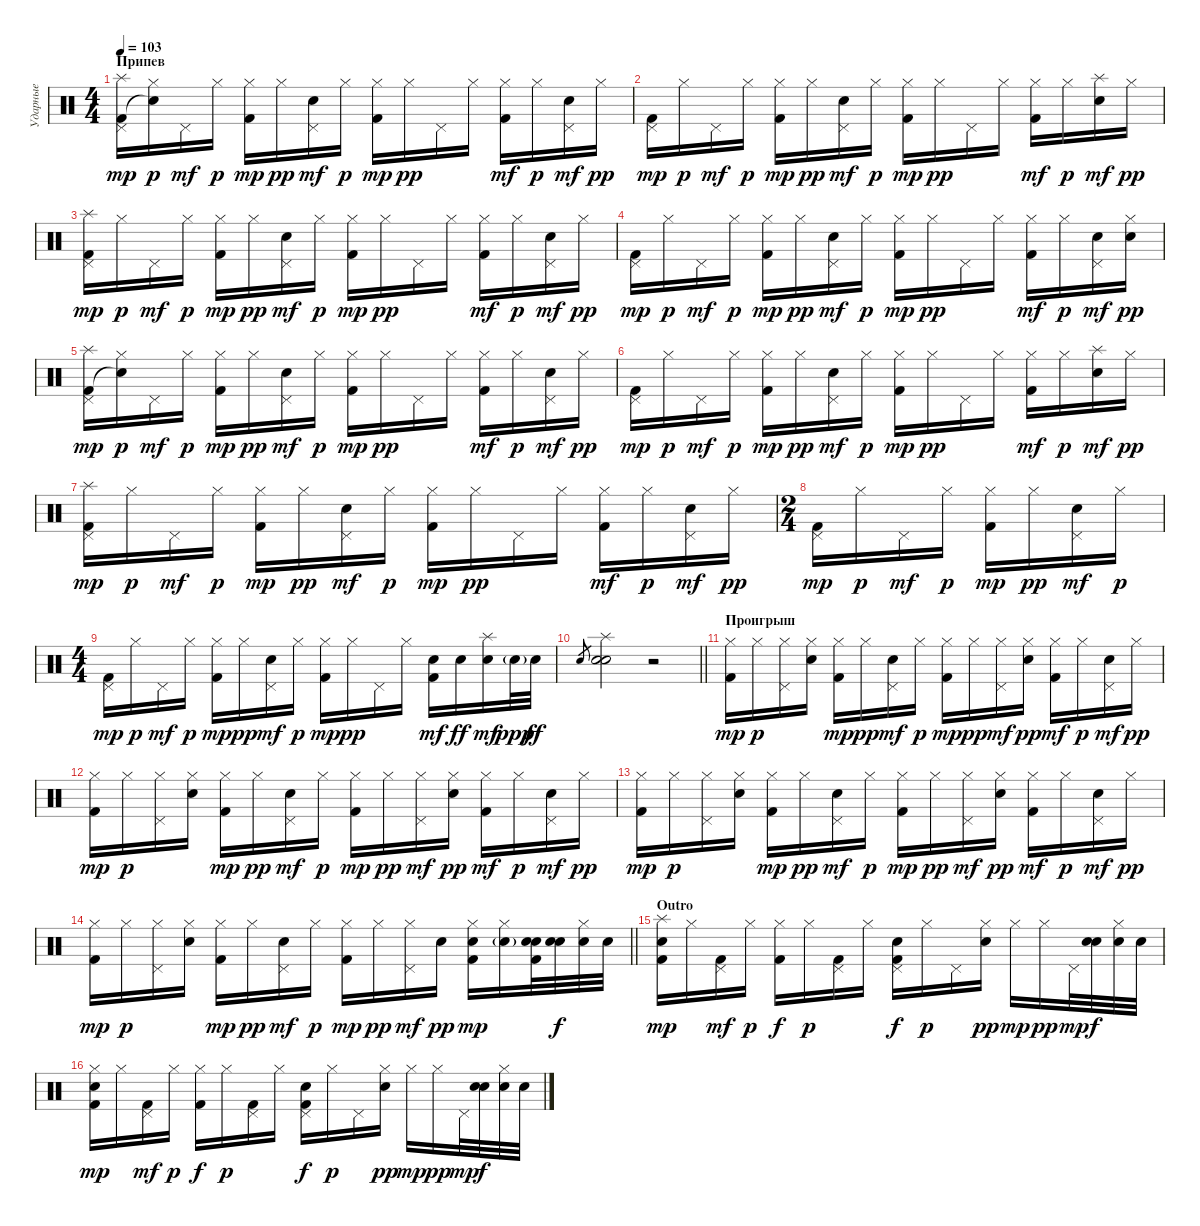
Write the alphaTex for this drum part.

\track ("Ударные" "Ударные") {instrument percussion}
\staff {score}
\articulation defaults
\ts (4 4)
\section ("" "Припев")
\tempo 103
\clef neutral
\ks c
("Pedal Hi-Hat (hit)" "Kick (hit) 2" "Splash (hit)").16{dy mp} ("Hi-Hat (closed)" "Snare (hit)"{t}).16{dy p} "Pedal Hi-Hat (hit)".16{dy mf} "Hi-Hat (closed)".16{dy p} ("Kick (hit) 2" "Hi-Hat (closed)").16{dy mp} "Hi-Hat (closed)".16{dy pp} ("Electric Snare (hit)" "Pedal Hi-Hat (hit)").16{dy mf} "Hi-Hat (closed)".16{dy p} ("Hi-Hat (closed)" "Kick (hit) 2").16{dy mp} "Hi-Hat (closed)".16{dy pp} "Pedal Hi-Hat (hit)".16 "Hi-Hat (closed)".16 ("Hi-Hat (closed)" "Kick (hit) 2").16{dy mf} "Hi-Hat (closed)".16{dy p} ("Electric Snare (hit)" "Pedal Hi-Hat (hit)").16{dy mf} "Hi-Hat (closed)".16{dy pp} |
("Pedal Hi-Hat (hit)" "Kick (hit) 2").16{dy mp} "Hi-Hat (closed)".16{dy p} "Pedal Hi-Hat (hit)".16{dy mf} "Hi-Hat (closed)".16{dy p} ("Kick (hit) 2" "Hi-Hat (closed)").16{dy mp} "Hi-Hat (closed)".16{dy pp} ("Electric Snare (hit)" "Pedal Hi-Hat (hit)").16{dy mf} "Hi-Hat (closed)".16{dy p} ("Hi-Hat (closed)" "Kick (hit) 2").16{dy mp} "Hi-Hat (closed)".16{dy pp} "Pedal Hi-Hat (hit)".16 "Hi-Hat (closed)".16 ("Hi-Hat (closed)" "Kick (hit) 2").16{dy mf} "Hi-Hat (closed)".16{dy p} ("Electric Snare (hit)" "Splash (hit)").16{dy mf} "Hi-Hat (closed)".16{dy pp} |
("Pedal Hi-Hat (hit)" "Kick (hit) 2" "Splash (hit)").16{dy mp} "Hi-Hat (closed)".16{dy p} "Pedal Hi-Hat (hit)".16{dy mf} "Hi-Hat (closed)".16{dy p} ("Kick (hit) 2" "Hi-Hat (closed)").16{dy mp} "Hi-Hat (closed)".16{dy pp} ("Electric Snare (hit)" "Pedal Hi-Hat (hit)").16{dy mf} "Hi-Hat (closed)".16{dy p} ("Hi-Hat (closed)" "Kick (hit) 2").16{dy mp} "Hi-Hat (closed)".16{dy pp} "Pedal Hi-Hat (hit)".16 "Hi-Hat (closed)".16 ("Hi-Hat (closed)" "Kick (hit) 2").16{dy mf} "Hi-Hat (closed)".16{dy p} ("Electric Snare (hit)" "Pedal Hi-Hat (hit)").16{dy mf} "Hi-Hat (closed)".16{dy pp} |
("Pedal Hi-Hat (hit)" "Kick (hit) 2").16{dy mp} "Hi-Hat (closed)".16{dy p} "Pedal Hi-Hat (hit)".16{dy mf} "Hi-Hat (closed)".16{dy p} ("Kick (hit) 2" "Hi-Hat (closed)").16{dy mp} "Hi-Hat (closed)".16{dy pp} ("Electric Snare (hit)" "Pedal Hi-Hat (hit)").16{dy mf} "Hi-Hat (closed)".16{dy p} ("Hi-Hat (closed)" "Kick (hit) 2").16{dy mp} "Hi-Hat (closed)".16{dy pp} "Pedal Hi-Hat (hit)".16 "Hi-Hat (closed)".16 ("Hi-Hat (closed)" "Kick (hit) 2").16{dy mf} "Hi-Hat (closed)".16{dy p} ("Electric Snare (hit)" "Pedal Hi-Hat (hit)").16{dy mf} ("Hi-Hat (closed)" "Electric Snare (hit)").16{dy pp} |
("Pedal Hi-Hat (hit)" "Kick (hit) 2" "Splash (hit)").16{dy mp} ("Hi-Hat (closed)" "Snare (hit)"{t}).16{dy p} "Pedal Hi-Hat (hit)".16{dy mf} "Hi-Hat (closed)".16{dy p} ("Kick (hit) 2" "Hi-Hat (closed)").16{dy mp} "Hi-Hat (closed)".16{dy pp} ("Electric Snare (hit)" "Pedal Hi-Hat (hit)").16{dy mf} "Hi-Hat (closed)".16{dy p} ("Hi-Hat (closed)" "Kick (hit) 2").16{dy mp} "Hi-Hat (closed)".16{dy pp} "Pedal Hi-Hat (hit)".16 "Hi-Hat (closed)".16 ("Hi-Hat (closed)" "Kick (hit) 2").16{dy mf} "Hi-Hat (closed)".16{dy p} ("Electric Snare (hit)" "Pedal Hi-Hat (hit)").16{dy mf} "Hi-Hat (closed)".16{dy pp} |
("Pedal Hi-Hat (hit)" "Kick (hit) 2").16{dy mp} "Hi-Hat (closed)".16{dy p} "Pedal Hi-Hat (hit)".16{dy mf} "Hi-Hat (closed)".16{dy p} ("Kick (hit) 2" "Hi-Hat (closed)").16{dy mp} "Hi-Hat (closed)".16{dy pp} ("Electric Snare (hit)" "Pedal Hi-Hat (hit)").16{dy mf} "Hi-Hat (closed)".16{dy p} ("Hi-Hat (closed)" "Kick (hit) 2").16{dy mp} "Hi-Hat (closed)".16{dy pp} "Pedal Hi-Hat (hit)".16 "Hi-Hat (closed)".16 ("Hi-Hat (closed)" "Kick (hit) 2").16{dy mf} "Hi-Hat (closed)".16{dy p} ("Electric Snare (hit)" "Splash (hit)").16{dy mf} "Hi-Hat (closed)".16{dy pp} |
("Pedal Hi-Hat (hit)" "Kick (hit) 2" "Splash (hit)").16{dy mp} "Hi-Hat (closed)".16{dy p} "Pedal Hi-Hat (hit)".16{dy mf} "Hi-Hat (closed)".16{dy p} ("Kick (hit) 2" "Hi-Hat (closed)").16{dy mp} "Hi-Hat (closed)".16{dy pp} ("Electric Snare (hit)" "Pedal Hi-Hat (hit)").16{dy mf} "Hi-Hat (closed)".16{dy p} ("Hi-Hat (closed)" "Kick (hit) 2").16{dy mp} "Hi-Hat (closed)".16{dy pp} "Pedal Hi-Hat (hit)".16 "Hi-Hat (closed)".16 ("Hi-Hat (closed)" "Kick (hit) 2").16{dy mf} "Hi-Hat (closed)".16{dy p} ("Electric Snare (hit)" "Pedal Hi-Hat (hit)").16{dy mf} "Hi-Hat (closed)".16{dy pp} |
\ts (2 4)
("Pedal Hi-Hat (hit)" "Kick (hit) 2").16{dy mp} "Hi-Hat (closed)".16{dy p} "Pedal Hi-Hat (hit)".16{dy mf} "Hi-Hat (closed)".16{dy p} ("Kick (hit) 2" "Hi-Hat (closed)").16{dy mp} "Hi-Hat (closed)".16{dy pp} ("Electric Snare (hit)" "Pedal Hi-Hat (hit)").16{dy mf} "Hi-Hat (closed)".16{dy p} |
\ts (4 4)
("Pedal Hi-Hat (hit)" "Kick (hit) 2").16{dy mp} "Hi-Hat (closed)".16{dy p} "Pedal Hi-Hat (hit)".16{dy mf} "Hi-Hat (closed)".16{dy p} ("Kick (hit) 2" "Hi-Hat (closed)").16{dy mp} "Hi-Hat (closed)".16{dy pp} ("Electric Snare (hit)" "Pedal Hi-Hat (hit)").16{dy mf} "Hi-Hat (closed)".16{dy p} ("Hi-Hat (closed)" "Kick (hit) 2").16{dy mp} "Hi-Hat (closed)".16{dy pp} "Pedal Hi-Hat (hit)".16 "Hi-Hat (closed)".16 ("Electric Snare (hit)" "Kick (hit) 2").16{dy mf} "Electric Snare (hit)".16{dy ff} ("Electric Snare (hit)" "Splash (hit)").16{dy mf} "Electric Snare (hit)"{g}.32{dy ppp} "Electric Snare (hit)".32{dy ff} |
\barLineRight lightlight "Electric Snare (hit)".8{gr}
("Electric Snare (hit)" "Electric Snare (hit)" "Splash (hit)").2 r.2 |
\section ("" "Проигрыш")
("Hi-Hat (closed)" "Kick (hit) 2").16{dy mp} "Hi-Hat (closed)".16{dy p} ("Pedal Hi-Hat (hit)" "Hi-Hat (closed)").16 ("Electric Snare (hit)" "Hi-Hat (closed)").16 ("Kick (hit) 2" "Hi-Hat (closed)").16{dy mp} "Hi-Hat (closed)".16{dy pp} ("Electric Snare (hit)" "Pedal Hi-Hat (hit)").16{dy mf} "Hi-Hat (closed)".16{dy p} ("Hi-Hat (closed)" "Kick (hit) 2").16{dy mp} "Hi-Hat (closed)".16{dy pp} ("Hi-Hat (closed)" "Pedal Hi-Hat (hit)").16{dy mf} ("Electric Snare (hit)" "Hi-Hat (closed)").16{dy pp} ("Hi-Hat (closed)" "Kick (hit) 2").16{dy mf} "Hi-Hat (closed)".16{dy p} ("Electric Snare (hit)" "Pedal Hi-Hat (hit)").16{dy mf} "Hi-Hat (closed)".16{dy pp} |
("Hi-Hat (closed)" "Kick (hit) 2").16{dy mp} "Hi-Hat (closed)".16{dy p} ("Pedal Hi-Hat (hit)" "Hi-Hat (closed)").16 ("Electric Snare (hit)" "Hi-Hat (closed)").16 ("Kick (hit) 2" "Hi-Hat (closed)").16{dy mp} "Hi-Hat (closed)".16{dy pp} ("Electric Snare (hit)" "Pedal Hi-Hat (hit)").16{dy mf} "Hi-Hat (closed)".16{dy p} ("Hi-Hat (closed)" "Kick (hit) 2").16{dy mp} "Hi-Hat (closed)".16{dy pp} ("Hi-Hat (closed)" "Pedal Hi-Hat (hit)").16{dy mf} ("Electric Snare (hit)" "Hi-Hat (closed)").16{dy pp} ("Hi-Hat (closed)" "Kick (hit) 2").16{dy mf} "Hi-Hat (closed)".16{dy p} ("Electric Snare (hit)" "Pedal Hi-Hat (hit)").16{dy mf} "Hi-Hat (closed)".16{dy pp} |
("Hi-Hat (closed)" "Kick (hit) 2").16{dy mp} "Hi-Hat (closed)".16{dy p} ("Pedal Hi-Hat (hit)" "Hi-Hat (closed)").16 ("Electric Snare (hit)" "Hi-Hat (closed)").16 ("Kick (hit) 2" "Hi-Hat (closed)").16{dy mp} "Hi-Hat (closed)".16{dy pp} ("Electric Snare (hit)" "Pedal Hi-Hat (hit)").16{dy mf} "Hi-Hat (closed)".16{dy p} ("Hi-Hat (closed)" "Kick (hit) 2").16{dy mp} "Hi-Hat (closed)".16{dy pp} ("Hi-Hat (closed)" "Pedal Hi-Hat (hit)").16{dy mf} ("Electric Snare (hit)" "Hi-Hat (closed)").16{dy pp} ("Hi-Hat (closed)" "Kick (hit) 2").16{dy mf} "Hi-Hat (closed)".16{dy p} ("Electric Snare (hit)" "Pedal Hi-Hat (hit)").16{dy mf} "Hi-Hat (closed)".16{dy pp} |
\barLineRight lightlight
("Hi-Hat (closed)" "Kick (hit) 2").16{dy mp} "Hi-Hat (closed)".16{dy p} ("Pedal Hi-Hat (hit)" "Hi-Hat (closed)").16 ("Electric Snare (hit)" "Hi-Hat (closed)").16 ("Kick (hit) 2" "Hi-Hat (closed)").16{dy mp} "Hi-Hat (closed)".16{dy pp} ("Electric Snare (hit)" "Pedal Hi-Hat (hit)").16{dy mf} "Hi-Hat (closed)".16{dy p} ("Hi-Hat (closed)" "Kick (hit) 2").16{dy mp} "Hi-Hat (closed)".16{dy pp} ("Hi-Hat (closed)" "Pedal Hi-Hat (hit)").16{dy mf} "Electric Snare (hit)".16{dy pp} ("Hi-Hat (closed)" "Electric Snare (hit)" "Kick (hit) 2").16{dy mp} ("Hi-Hat (closed)" "Electric Snare (hit)"{g}).16 ("Electric Snare (hit)" "Electric Snare (hit)" "Kick (hit) 2").32 ("Electric Snare (hit)" "Electric Snare (hit)").32{dy f} ("Electric Snare (hit)" "Hi-Hat (closed)").32 "Electric Snare (hit)".32 |
\section ("" "Outro")
("Electric Snare (hit)" "Kick (hit) 2" "Splash (hit)").16{dy mp} "Hi-Hat (closed)".16 ("Pedal Hi-Hat (hit)" "Kick (hit) 2").16{dy mf} "Hi-Hat (closed)".16{dy p} ("Hi-Hat (closed)" "Kick (hit) 2").16{dy f} "Hi-Hat (closed)".16{dy p} ("Pedal Hi-Hat (hit)" "Kick (hit) 2").16 "Hi-Hat (closed)".16 ("Electric Snare (hit)" "Kick (hit) 2" "Pedal Hi-Hat (hit)").16{dy f} "Hi-Hat (closed)".16{dy p} "Pedal Hi-Hat (hit)".16 ("Electric Snare (hit)" "Hi-Hat (closed)").16{dy pp} "Hi-Hat (closed)".16{dy mp} "Hi-Hat (closed)".16{dy pp} "Pedal Hi-Hat (hit)".32{dy mp} ("Electric Snare (hit)" "Electric Snare (hit)").32{dy f} ("Electric Snare (hit)" "Hi-Hat (closed)").32 "Electric Snare (hit)".32 |
("Electric Snare (hit)" "Kick (hit) 2" "Hi-Hat (closed)").16{dy mp} "Hi-Hat (closed)".16 ("Pedal Hi-Hat (hit)" "Kick (hit) 2").16{dy mf} "Hi-Hat (closed)".16{dy p} ("Hi-Hat (closed)" "Kick (hit) 2").16{dy f} "Hi-Hat (closed)".16{dy p} ("Pedal Hi-Hat (hit)" "Kick (hit) 2").16 "Hi-Hat (closed)".16 ("Electric Snare (hit)" "Kick (hit) 2" "Pedal Hi-Hat (hit)").16{dy f} "Hi-Hat (closed)".16{dy p} "Pedal Hi-Hat (hit)".16 ("Electric Snare (hit)" "Hi-Hat (closed)").16{dy pp} "Hi-Hat (closed)".16{dy mp} "Hi-Hat (closed)".16{dy pp} "Pedal Hi-Hat (hit)".32{dy mp} ("Electric Snare (hit)" "Electric Snare (hit)").32{dy f} ("Electric Snare (hit)" "Hi-Hat (closed)").32 "Electric Snare (hit)".32
